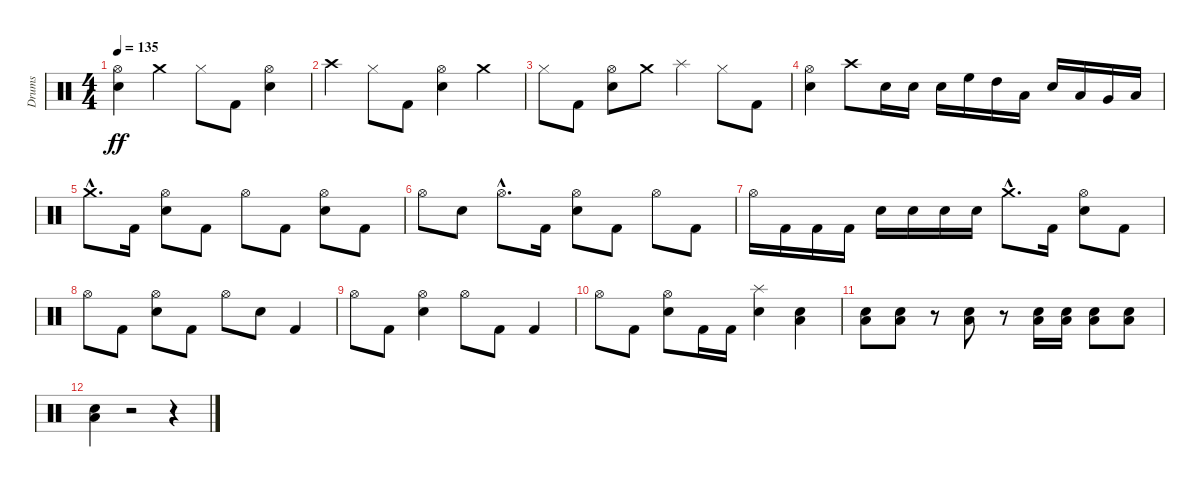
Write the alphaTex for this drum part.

\track ("Drums" "Drums") {instrument percussion}
\staff {score}
\articulation defaults
\ts (4 4)
\tempo 135
\clef neutral
\ks c
("Electric Snare (hit)" "Hi-Hat (open)").4{dy ff} "Crash medium (hit)".4 "Hi-Hat (closed)".8 "Kick (hit) 2".8 ("Electric Snare (hit)" "Hi-Hat (open)").4 |
"Crash high (hit)".4 "Hi-Hat (closed)".8 "Kick (hit) 2".8 ("Electric Snare (hit)" "Hi-Hat (open)").4 "Crash medium (hit)".4 |
"Hi-Hat (closed)".8 "Kick (hit) 2".8 ("Electric Snare (hit)" "Hi-Hat (open)").8 "Crash medium (hit)".8 "Splash (hit)".4 "Hi-Hat (closed)".8 "Kick (hit) 2".8 |
("Electric Snare (hit)" "Hi-Hat (open)").4 "Crash high (hit)".8 "Electric Snare (hit)".16 "Electric Snare (hit)".16 "Electric Snare (hit)".16 "High Floor Tom (hit)".16 "High Tom (hit)".16 "Low Tom (hit)".16 "Electric Snare (hit)".16 "Low Tom (hit)".16 "Very Low Tom (hit)".16 "Low Floor Tom (hit)".16 |
"Crash medium (hit)"{hac}.8{d} "Kick (hit) 2".16 ("Electric Snare (hit)" "Hi-Hat (open)").8 "Kick (hit) 2".8 "Hi-Hat (open)".8 "Kick (hit) 2".8 ("Electric Snare (hit)" "Hi-Hat (open)").8 "Kick (hit) 2".8 |
"Hi-Hat (open)".8 "Electric Snare (hit)".8 "Hi-Hat (open)"{hac}.8{d} "Kick (hit) 2".16 ("Electric Snare (hit)" "Hi-Hat (open)").8 "Kick (hit) 2".8 "Hi-Hat (open)".8 "Kick (hit) 2".8 |
"Hi-Hat (open)".16 "Kick (hit) 2".16 "Kick (hit) 2".16 "Kick (hit) 2".16 "Electric Snare (hit)".16 "Electric Snare (hit)".16 "Electric Snare (hit)".16 "Electric Snare (hit)".16 "Crash medium (hit)"{hac}.8{d} "Kick (hit) 2".16 ("Electric Snare (hit)" "Hi-Hat (open)").8 "Kick (hit) 2".8 |
"Hi-Hat (open)".8 "Kick (hit) 2".8 ("Electric Snare (hit)" "Hi-Hat (open)").8 "Kick (hit) 2".8 "Hi-Hat (open)".8 "Electric Snare (hit)".8 "Kick (hit) 2".4 |
"Hi-Hat (open)".8 "Kick (hit) 2".8 ("Electric Snare (hit)" "Hi-Hat (open)").4 "Hi-Hat (open)".8 "Kick (hit) 2".8 "Kick (hit) 2".4 |
"Hi-Hat (open)".8 "Kick (hit) 2".8 ("Electric Snare (hit)" "Hi-Hat (open)").8 "Kick (hit) 2".16 "Kick (hit) 2".16 ("Electric Snare (hit)" "Splash (hit)").4 ("Electric Snare (hit)" "Low Tom (hit)").4 |
("Electric Snare (hit)" "Low Tom (hit)").8 ("Electric Snare (hit)" "Low Tom (hit)").8 r.8 ("Electric Snare (hit)" "Low Tom (hit)").8 r.8 ("Electric Snare (hit)" "Low Tom (hit)").16 ("Electric Snare (hit)" "Low Tom (hit)").16 ("Electric Snare (hit)" "Low Tom (hit)").8 ("Electric Snare (hit)" "Low Tom (hit)").8 |
("Electric Snare (hit)" "Low Tom (hit)").4 r.2 r.4
